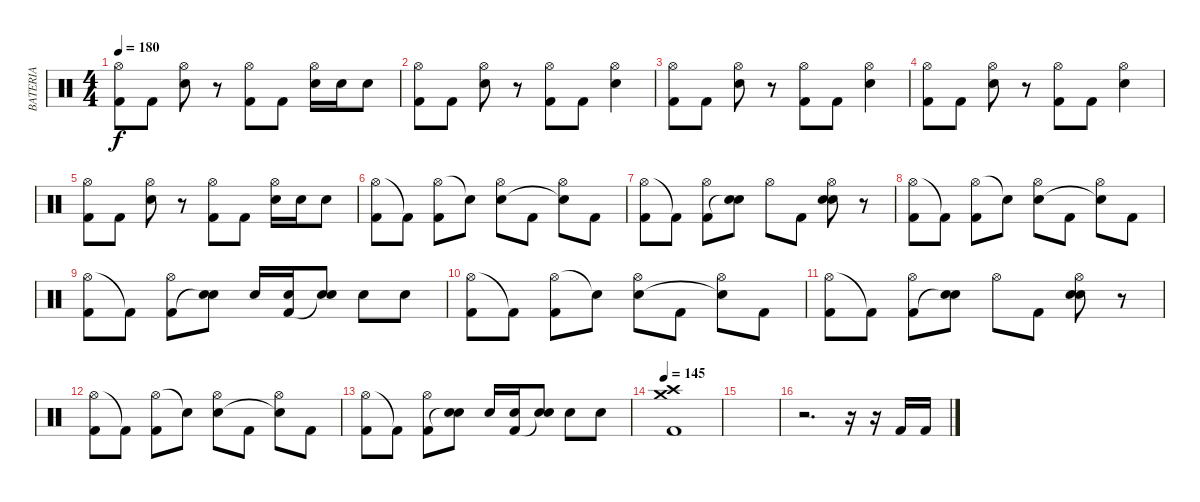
\track ("BATERIA" "BATERIA") {instrument percussion}
\staff {score}
\articulation defaults
\ts (4 4)
\tempo 180
\clef neutral
\ks c
("Hi-Hat (open)" "Kick (hit) 2").8{dy f} "Kick (hit) 2".8 ("Hi-Hat (open)" "Electric Snare (hit)").8 r.8 ("Hi-Hat (open)" "Kick (hit) 2").8 "Kick (hit) 2".8 ("Hi-Hat (open)" "Electric Snare (hit)").16 "Electric Snare (hit)".16 "Electric Snare (hit)".8 |
("Hi-Hat (open)" "Kick (hit) 2").8 "Kick (hit) 2".8 ("Hi-Hat (open)" "Electric Snare (hit)").8 r.8 ("Hi-Hat (open)" "Kick (hit) 2").8 "Kick (hit) 2".8 ("Hi-Hat (open)" "Electric Snare (hit)").4 |
("Hi-Hat (open)" "Kick (hit) 2").8 "Kick (hit) 2".8 ("Hi-Hat (open)" "Electric Snare (hit)").8 r.8 ("Hi-Hat (open)" "Kick (hit) 2").8 "Kick (hit) 2".8 ("Hi-Hat (open)" "Electric Snare (hit)").4 |
("Hi-Hat (open)" "Kick (hit) 2").8 "Kick (hit) 2".8 ("Hi-Hat (open)" "Electric Snare (hit)").8 r.8 ("Hi-Hat (open)" "Kick (hit) 2").8 "Kick (hit) 2".8 ("Hi-Hat (open)" "Electric Snare (hit)").4 |
("Hi-Hat (open)" "Kick (hit) 2").8 "Kick (hit) 2".8 ("Hi-Hat (open)" "Electric Snare (hit)").8 r.8 ("Hi-Hat (open)" "Kick (hit) 2").8 "Kick (hit) 2".8 ("Hi-Hat (open)" "Electric Snare (hit)").16 "Electric Snare (hit)".16 "Electric Snare (hit)".8 |
("Hi-Hat (open)" "Kick (hit) 2").8 "Kick (hit) 2"{t}.8 ("Hi-Hat (open)" "Kick (hit) 2").8 "Snare (hit)"{t}.8 ("Hi-Hat (open)" "Electric Snare (hit)").8 "Kick (hit) 2".8 ("Hi-Hat (open)" "Snare (hit)"{t}).8 "Kick (hit) 2".8 |
("Hi-Hat (open)" "Kick (hit) 2").8 "Kick (hit) 2"{t}.8 ("Hi-Hat (open)" "Kick (hit) 2").8 ("Electric Snare (hit)" "Snare (hit)"{t}).8 "Hi-Hat (open)".8 "Kick (hit) 2".8 ("Hi-Hat (open)" "Electric Snare (hit)" "Snare (hit)").8 r.8 |
("Hi-Hat (open)" "Kick (hit) 2").8 "Kick (hit) 2"{t}.8 ("Hi-Hat (open)" "Kick (hit) 2").8 "Snare (hit)"{t}.8 ("Hi-Hat (open)" "Electric Snare (hit)").8 "Kick (hit) 2".8 ("Hi-Hat (open)" "Snare (hit)"{t}).8 "Kick (hit) 2".8 |
("Hi-Hat (open)" "Kick (hit) 2").8 "Kick (hit) 2"{t}.8 ("Hi-Hat (open)" "Kick (hit) 2").8 ("Electric Snare (hit)" "Snare (hit)"{t}).8 "Electric Snare (hit)".16 ("Electric Snare (hit)" "Kick (hit) 2").16 ("Electric Snare (hit)" "Snare (hit)"{t}).8 "Electric Snare (hit)".8 "Electric Snare (hit)".8 |
("Hi-Hat (open)" "Kick (hit) 2").8 "Kick (hit) 2"{t}.8 ("Hi-Hat (open)" "Kick (hit) 2").8 "Snare (hit)"{t}.8 ("Hi-Hat (open)" "Electric Snare (hit)").8 "Kick (hit) 2".8 ("Hi-Hat (open)" "Snare (hit)"{t}).8 "Kick (hit) 2".8 |
("Hi-Hat (open)" "Kick (hit) 2").8 "Kick (hit) 2"{t}.8 ("Hi-Hat (open)" "Kick (hit) 2").8 ("Electric Snare (hit)" "Snare (hit)"{t}).8 "Hi-Hat (open)".8 "Kick (hit) 2".8 ("Hi-Hat (open)" "Electric Snare (hit)" "Snare (hit)").8 r.8 |
("Hi-Hat (open)" "Kick (hit) 2").8 "Kick (hit) 2"{t}.8 ("Hi-Hat (open)" "Kick (hit) 2").8 "Snare (hit)"{t}.8 ("Hi-Hat (open)" "Electric Snare (hit)").8 "Kick (hit) 2".8 ("Hi-Hat (open)" "Snare (hit)"{t}).8 "Kick (hit) 2".8 |
("Hi-Hat (open)" "Kick (hit) 2").8 "Kick (hit) 2"{t}.8 ("Hi-Hat (open)" "Kick (hit) 2").8 ("Electric Snare (hit)" "Snare (hit)"{t}).8 "Electric Snare (hit)".16 ("Electric Snare (hit)" "Kick (hit) 2").16 ("Electric Snare (hit)" "Snare (hit)"{t}).8 "Electric Snare (hit)".8 "Electric Snare (hit)".8 |
\tempo 145
("Crash high (hit)" "Crash medium (hit)" "Kick (hit) 2").1 |
|
r.2{d} r.16 r.16 "Kick (hit) 2".16 "Kick (hit) 2".16
